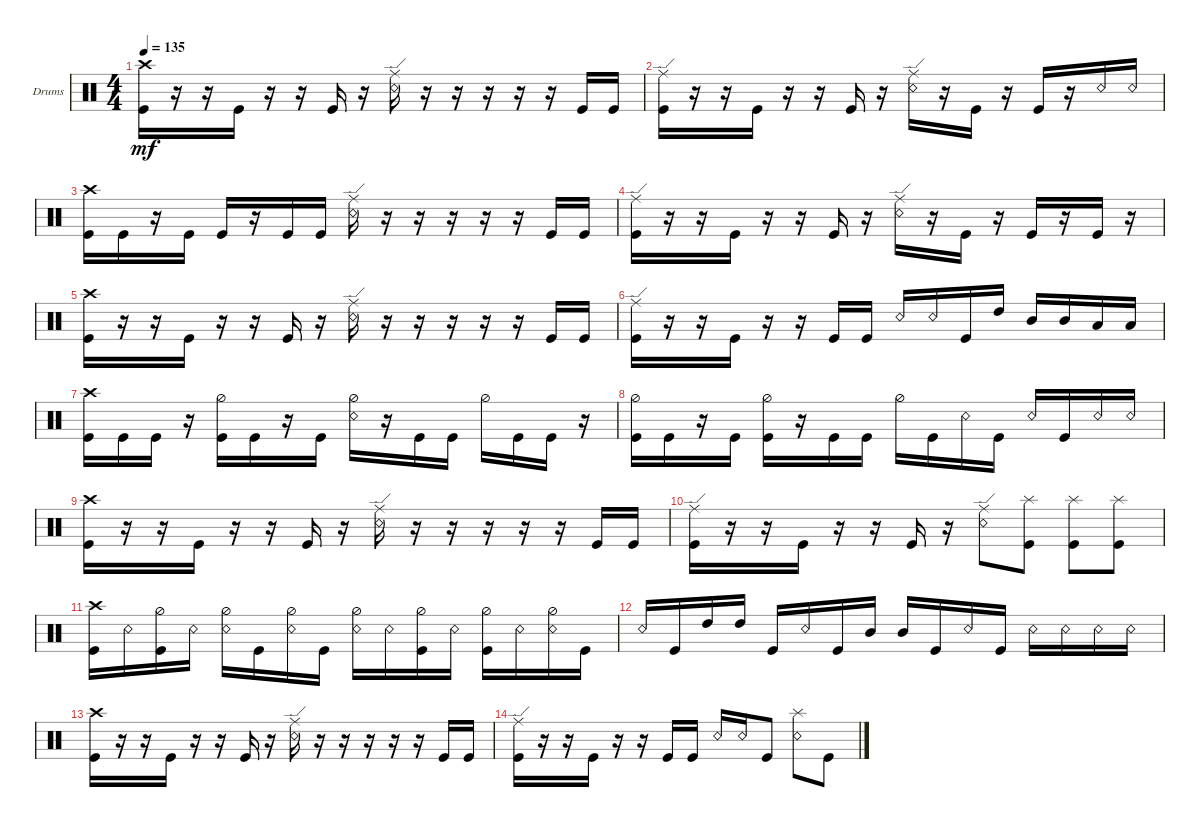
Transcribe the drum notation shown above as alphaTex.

\defaultSystemsLayout 4
\bracketExtendMode groupsimilarinstruments
\firstSystemTrackNameOrientation horizontal
\otherSystemsTrackNameOrientation horizontal
\track ("Drumkit" "Drums") {instrument percussion}
\staff {score}
\articulation defaults
\ts (4 4)
\tempo 135
\clef neutral
\ks c
("Kick (hit)" "Crash high (hit)").16{dy mf} r.16 r.16 "Kick (hit)".16 r.16 r.16 "Kick (hit)".16 r.16 ("Snare (rim shot)" "Ride (edge)").16 r.16 r.16 r.16 r.16 r.16 "Kick (hit)".16 "Kick (hit)".16 |
("Kick (hit)" "Ride (edge)").16 r.16 r.16 "Kick (hit)".16 r.16 r.16 "Kick (hit)".16 r.16 ("Snare (rim shot)" "Ride (edge)").16 r.16 "Kick (hit)".16 r.16 "Kick (hit)".16 r.16 "Snare (rim shot)".16 "Snare (rim shot)".16 |
("Kick (hit)" "Crash high (hit)").16 "Kick (hit)".16 r.16 "Kick (hit)".16 "Kick (hit)".16 r.16 "Kick (hit)".16 "Kick (hit)".16 ("Snare (rim shot)" "Ride (edge)").16 r.16 r.16 r.16 r.16 r.16 "Kick (hit)".16 "Kick (hit)".16 |
("Kick (hit)" "Ride (edge)").16 r.16 r.16 "Kick (hit)".16 r.16 r.16 "Kick (hit)".16 r.16 ("Snare (rim shot)" "Ride (edge)").16 r.16 "Kick (hit)".16 r.16 "Kick (hit)".16 r.16 "Kick (hit)".16 r.16 |
("Kick (hit)" "Crash high (hit)").16 r.16 r.16 "Kick (hit)".16 r.16 r.16 "Kick (hit)".16 r.16 ("Snare (rim shot)" "Ride (edge)").16 r.16 r.16 r.16 r.16 r.16 "Kick (hit)".16 "Kick (hit)".16 |
("Kick (hit)" "Ride (edge)").16 r.16 r.16 "Kick (hit)".16 r.16 r.16 "Kick (hit)".16 "Kick (hit)".16 "Snare (rim shot)".16 "Snare (rim shot)".16 "Kick (hit)".16 "High Tom (hit)".16 "Mid Tom (hit)".16 "Mid Tom (hit)".16 "Low Tom (hit)".16 "Low Tom (hit)".16 |
("Kick (hit)" "Crash high (hit)").16 "Kick (hit)".16 "Kick (hit)".16 r.16 ("Kick (hit)" "Hi-Hat (half)").16 "Kick (hit)".16 r.16 "Kick (hit)".16 ("Snare (rim shot)" "Hi-Hat (half)").16 r.16 "Kick (hit)".16 "Kick (hit)".16 "Hi-Hat (half)".16 "Kick (hit)".16 "Kick (hit)".16 r.16 |
("Kick (hit)" "Hi-Hat (half)").16 "Kick (hit)".16 r.16 "Kick (hit)".16 ("Kick (hit)" "Hi-Hat (half)").16 r.16 "Kick (hit)".16 "Kick (hit)".16 "Hi-Hat (half)".16 "Kick (hit)".16 "Snare (rim shot)".16 "Kick (hit)".16 "Snare (rim shot)".16 "Kick (hit)".16 "Snare (rim shot)".16 "Snare (rim shot)".16 |
("Kick (hit)" "Crash high (hit)").16 r.16 r.16 "Kick (hit)".16 r.16 r.16 "Kick (hit)".16 r.16 ("Snare (rim shot)" "Ride (edge)").16 r.16 r.16 r.16 r.16 r.16 "Kick (hit)".16 "Kick (hit)".16 |
("Kick (hit)" "Ride (edge)").16 r.16 r.16 "Kick (hit)".16 r.16 r.16 "Kick (hit)".16 r.16 ("Snare (rim shot)" "Ride (edge)").8 ("Kick (hit)" "Splash (hit)").8 ("Kick (hit)" "Splash (hit)").8 ("Kick (hit)" "Splash (hit)").8 |
("Kick (hit)" "Crash high (hit)").16 "Snare (rim shot)".16 ("Kick (hit)" "Hi-Hat (half)").16 "Snare (rim shot)".16 ("Snare (rim shot)" "Hi-Hat (half)").16 "Kick (hit)".16 ("Snare (rim shot)" "Hi-Hat (half)").16 "Kick (hit)".16 ("Snare (rim shot)" "Hi-Hat (half)").16 "Snare (rim shot)".16 ("Kick (hit)" "Hi-Hat (half)").16 "Snare (rim shot)".16 ("Kick (hit)" "Hi-Hat (half)").16 "Snare (rim shot)".16 ("Snare (rim shot)" "Hi-Hat (half)").16 "Kick (hit)".16 |
"Snare (rim shot)".16 "Kick (hit)".16 "High Tom (hit)".16 "High Tom (hit)".16 "Kick (hit)".16 "Snare (rim shot)".16 "Kick (hit)".16 "Mid Tom (hit)".16 "Mid Tom (hit)".16 "Kick (hit)".16 "Snare (rim shot)".16 "Kick (hit)".16 "Snare (rim shot)".16 "Snare (rim shot)".16 "Snare (rim shot)".16 "Snare (rim shot)".16 |
("Kick (hit)" "Crash high (hit)").16 r.16 r.16 "Kick (hit)".16 r.16 r.16 "Kick (hit)".16 r.16 ("Snare (rim shot)" "Ride (edge)").16 r.16 r.16 r.16 r.16 r.16 "Kick (hit)".16 "Kick (hit)".16 |
("Kick (hit)" "Ride (edge)").16 r.16 r.16 "Kick (hit)".16 r.16 r.16 "Kick (hit)".16 "Kick (hit)".16 "Snare (rim shot)".16 "Snare (rim shot)".16 "Kick (hit)".8 ("Snare (rim shot)" "Splash (hit)").8 "Kick (hit)".8
